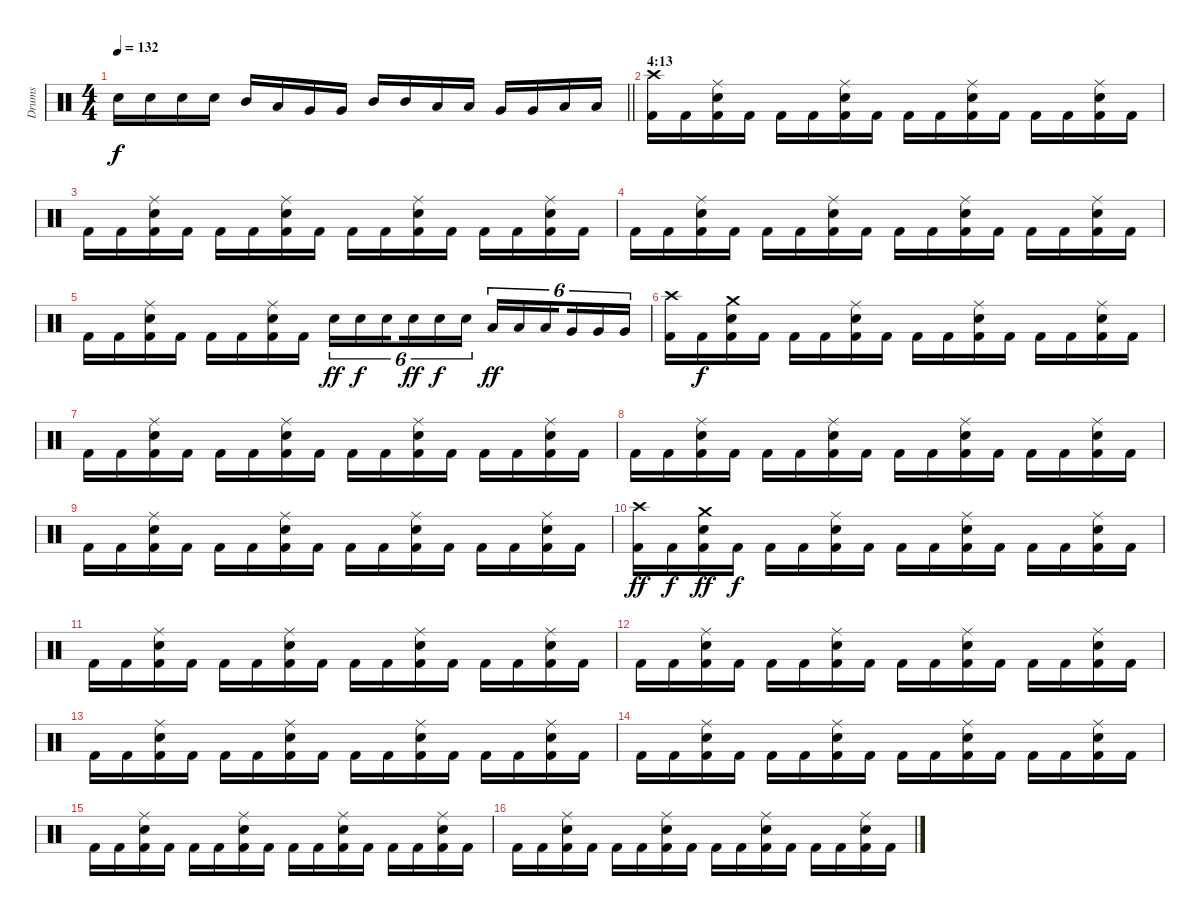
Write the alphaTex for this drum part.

\track ("Drums" "Drums") {instrument percussion}
\staff {score}
\articulation defaults
\ts (4 4)
\tempo 132
\clef neutral
\barLineRight lightlight
\ks c "Snare (hit) 2".16{dy f} "Snare (hit) 2".16 "Snare (hit) 2".16 "Snare (hit) 2".16 "Mid Tom (hit)".16 "Low Tom (hit)".16 "Very Low Tom (hit)".16 "Very Low Tom (hit)".16 "Mid Tom (hit)".16 "Mid Tom (hit)".16 "Low Tom (hit)".16 "Low Tom (hit)".16 "Very Low Tom (hit)".16 "Very Low Tom (hit)".16 "Low Floor Tom (hit)".16 "Low Floor Tom (hit)".16
|
\section ("" "4:13")
("Crash high (hit)" "Kick (hit) 2").16 "Kick (hit) 2".16 ("Ride (middle)" "Snare (hit) 2" "Kick (hit) 2").16 "Kick (hit) 2".16 "Kick (hit) 2".16 "Kick (hit) 2".16 ("Ride (middle)" "Snare (hit) 2" "Kick (hit) 2").16 "Kick (hit) 2".16 "Kick (hit) 2".16 "Kick (hit) 2".16 ("Ride (middle)" "Snare (hit) 2" "Kick (hit) 2").16 "Kick (hit) 2".16 "Kick (hit) 2".16 "Kick (hit) 2".16 ("Ride (middle)" "Snare (hit) 2" "Kick (hit) 2").16 "Kick (hit) 2".16 |
"Kick (hit) 2".16 "Kick (hit) 2".16 ("Ride (middle)" "Snare (hit) 2" "Kick (hit) 2").16 "Kick (hit) 2".16 "Kick (hit) 2".16 "Kick (hit) 2".16 ("Ride (middle)" "Snare (hit) 2" "Kick (hit) 2").16 "Kick (hit) 2".16 "Kick (hit) 2".16 "Kick (hit) 2".16 ("Ride (middle)" "Snare (hit) 2" "Kick (hit) 2").16 "Kick (hit) 2".16 "Kick (hit) 2".16 "Kick (hit) 2".16 ("Ride (middle)" "Snare (hit) 2" "Kick (hit) 2").16 "Kick (hit) 2".16 |
"Kick (hit) 2".16 "Kick (hit) 2".16 ("Ride (middle)" "Snare (hit) 2" "Kick (hit) 2").16 "Kick (hit) 2".16 "Kick (hit) 2".16 "Kick (hit) 2".16 ("Ride (middle)" "Snare (hit) 2" "Kick (hit) 2").16 "Kick (hit) 2".16 "Kick (hit) 2".16 "Kick (hit) 2".16 ("Ride (middle)" "Snare (hit) 2" "Kick (hit) 2").16 "Kick (hit) 2".16 "Kick (hit) 2".16 "Kick (hit) 2".16 ("Ride (middle)" "Snare (hit) 2" "Kick (hit) 2").16 "Kick (hit) 2".16 |
"Kick (hit) 2".16 "Kick (hit) 2".16 ("Ride (middle)" "Snare (hit) 2" "Kick (hit) 2").16 "Kick (hit) 2".16 "Kick (hit) 2".16 "Kick (hit) 2".16 ("Ride (middle)" "Snare (hit) 2" "Kick (hit) 2").16 "Kick (hit) 2".16 "Snare (hit) 2".16{tu (6 4) dy ff} "Snare (hit) 2".16{tu (6 4) dy f} "Snare (hit) 2".16{tu (6 4) beam splitsecondary} "Snare (hit) 2".16{tu (6 4) dy ff} "Snare (hit) 2".16{tu (6 4) dy f} "Snare (hit) 2".16{tu (6 4)} "Low Tom (hit)".16{tu (6 4) dy ff} "Low Tom (hit)".16{tu (6 4)} "Low Tom (hit)".16{tu (6 4) beam splitsecondary} "Very Low Tom (hit)".16{tu (6 4)} "Very Low Tom (hit)".16{tu (6 4)} "Very Low Tom (hit)".16{tu (6 4)} |
("Crash high (hit)" "Kick (hit) 2").16 "Kick (hit) 2".16{dy f} ("Crash medium (hit)" "Snare (hit) 2" "Kick (hit) 2").16 "Kick (hit) 2".16 "Kick (hit) 2".16 "Kick (hit) 2".16 ("Ride (middle)" "Snare (hit) 2" "Kick (hit) 2").16 "Kick (hit) 2".16 "Kick (hit) 2".16 "Kick (hit) 2".16 ("Ride (middle)" "Snare (hit) 2" "Kick (hit) 2").16 "Kick (hit) 2".16 "Kick (hit) 2".16 "Kick (hit) 2".16 ("Ride (middle)" "Snare (hit) 2" "Kick (hit) 2").16 "Kick (hit) 2".16 |
"Kick (hit) 2".16 "Kick (hit) 2".16 ("Ride (middle)" "Snare (hit) 2" "Kick (hit) 2").16 "Kick (hit) 2".16 "Kick (hit) 2".16 "Kick (hit) 2".16 ("Ride (middle)" "Snare (hit) 2" "Kick (hit) 2").16 "Kick (hit) 2".16 "Kick (hit) 2".16 "Kick (hit) 2".16 ("Ride (middle)" "Snare (hit) 2" "Kick (hit) 2").16 "Kick (hit) 2".16 "Kick (hit) 2".16 "Kick (hit) 2".16 ("Ride (middle)" "Snare (hit) 2" "Kick (hit) 2").16 "Kick (hit) 2".16 |
"Kick (hit) 2".16 "Kick (hit) 2".16 ("Ride (middle)" "Snare (hit) 2" "Kick (hit) 2").16 "Kick (hit) 2".16 "Kick (hit) 2".16 "Kick (hit) 2".16 ("Ride (middle)" "Snare (hit) 2" "Kick (hit) 2").16 "Kick (hit) 2".16 "Kick (hit) 2".16 "Kick (hit) 2".16 ("Ride (middle)" "Snare (hit) 2" "Kick (hit) 2").16 "Kick (hit) 2".16 "Kick (hit) 2".16 "Kick (hit) 2".16 ("Ride (middle)" "Snare (hit) 2" "Kick (hit) 2").16 "Kick (hit) 2".16 |
"Kick (hit) 2".16 "Kick (hit) 2".16 ("Ride (middle)" "Snare (hit) 2" "Kick (hit) 2").16 "Kick (hit) 2".16 "Kick (hit) 2".16 "Kick (hit) 2".16 ("Ride (middle)" "Snare (hit) 2" "Kick (hit) 2").16 "Kick (hit) 2".16 "Kick (hit) 2".16 "Kick (hit) 2".16 ("Ride (middle)" "Snare (hit) 2" "Kick (hit) 2").16 "Kick (hit) 2".16 "Kick (hit) 2".16 "Kick (hit) 2".16 ("Ride (middle)" "Snare (hit) 2" "Kick (hit) 2").16 "Kick (hit) 2".16 |
("Crash high (hit)" "Kick (hit) 2").16{dy ff} "Kick (hit) 2".16{dy f} ("Crash medium (hit)" "Snare (hit) 2" "Kick (hit) 2").16{dy ff} "Kick (hit) 2".16{dy f} "Kick (hit) 2".16 "Kick (hit) 2".16 ("Ride (middle)" "Snare (hit) 2" "Kick (hit) 2").16 "Kick (hit) 2".16 "Kick (hit) 2".16 "Kick (hit) 2".16 ("Ride (middle)" "Snare (hit) 2" "Kick (hit) 2").16 "Kick (hit) 2".16 "Kick (hit) 2".16 "Kick (hit) 2".16 ("Ride (middle)" "Snare (hit) 2" "Kick (hit) 2").16 "Kick (hit) 2".16 |
"Kick (hit) 2".16 "Kick (hit) 2".16 ("Ride (middle)" "Snare (hit) 2" "Kick (hit) 2").16 "Kick (hit) 2".16 "Kick (hit) 2".16 "Kick (hit) 2".16 ("Ride (middle)" "Snare (hit) 2" "Kick (hit) 2").16 "Kick (hit) 2".16 "Kick (hit) 2".16 "Kick (hit) 2".16 ("Ride (middle)" "Snare (hit) 2" "Kick (hit) 2").16 "Kick (hit) 2".16 "Kick (hit) 2".16 "Kick (hit) 2".16 ("Ride (middle)" "Snare (hit) 2" "Kick (hit) 2").16 "Kick (hit) 2".16 |
"Kick (hit) 2".16 "Kick (hit) 2".16 ("Ride (middle)" "Snare (hit) 2" "Kick (hit) 2").16 "Kick (hit) 2".16 "Kick (hit) 2".16 "Kick (hit) 2".16 ("Ride (middle)" "Snare (hit) 2" "Kick (hit) 2").16 "Kick (hit) 2".16 "Kick (hit) 2".16 "Kick (hit) 2".16 ("Ride (middle)" "Snare (hit) 2" "Kick (hit) 2").16 "Kick (hit) 2".16 "Kick (hit) 2".16 "Kick (hit) 2".16 ("Ride (middle)" "Snare (hit) 2" "Kick (hit) 2").16 "Kick (hit) 2".16 |
"Kick (hit) 2".16 "Kick (hit) 2".16 ("Ride (middle)" "Snare (hit) 2" "Kick (hit) 2").16 "Kick (hit) 2".16 "Kick (hit) 2".16 "Kick (hit) 2".16 ("Ride (middle)" "Snare (hit) 2" "Kick (hit) 2").16 "Kick (hit) 2".16 "Kick (hit) 2".16 "Kick (hit) 2".16 ("Ride (middle)" "Snare (hit) 2" "Kick (hit) 2").16 "Kick (hit) 2".16 "Kick (hit) 2".16 "Kick (hit) 2".16 ("Ride (middle)" "Snare (hit) 2" "Kick (hit) 2").16 "Kick (hit) 2".16 |
"Kick (hit) 2".16 "Kick (hit) 2".16 ("Ride (middle)" "Snare (hit) 2" "Kick (hit) 2").16 "Kick (hit) 2".16 "Kick (hit) 2".16 "Kick (hit) 2".16 ("Ride (middle)" "Snare (hit) 2" "Kick (hit) 2").16 "Kick (hit) 2".16 "Kick (hit) 2".16 "Kick (hit) 2".16 ("Ride (middle)" "Snare (hit) 2" "Kick (hit) 2").16 "Kick (hit) 2".16 "Kick (hit) 2".16 "Kick (hit) 2".16 ("Ride (middle)" "Snare (hit) 2" "Kick (hit) 2").16 "Kick (hit) 2".16 |
"Kick (hit) 2".16 "Kick (hit) 2".16 ("Ride (middle)" "Snare (hit) 2" "Kick (hit) 2").16 "Kick (hit) 2".16 "Kick (hit) 2".16 "Kick (hit) 2".16 ("Ride (middle)" "Snare (hit) 2" "Kick (hit) 2").16 "Kick (hit) 2".16 "Kick (hit) 2".16 "Kick (hit) 2".16 ("Ride (middle)" "Snare (hit) 2" "Kick (hit) 2").16 "Kick (hit) 2".16 "Kick (hit) 2".16 "Kick (hit) 2".16 ("Ride (middle)" "Snare (hit) 2" "Kick (hit) 2").16 "Kick (hit) 2".16 |
"Kick (hit) 2".16 "Kick (hit) 2".16 ("Ride (middle)" "Snare (hit) 2" "Kick (hit) 2").16 "Kick (hit) 2".16 "Kick (hit) 2".16 "Kick (hit) 2".16 ("Ride (middle)" "Snare (hit) 2" "Kick (hit) 2").16 "Kick (hit) 2".16 "Kick (hit) 2".16 "Kick (hit) 2".16 ("Ride (middle)" "Snare (hit) 2" "Kick (hit) 2").16 "Kick (hit) 2".16 "Kick (hit) 2".16 "Kick (hit) 2".16 ("Ride (middle)" "Snare (hit) 2" "Kick (hit) 2").16 "Kick (hit) 2".16
